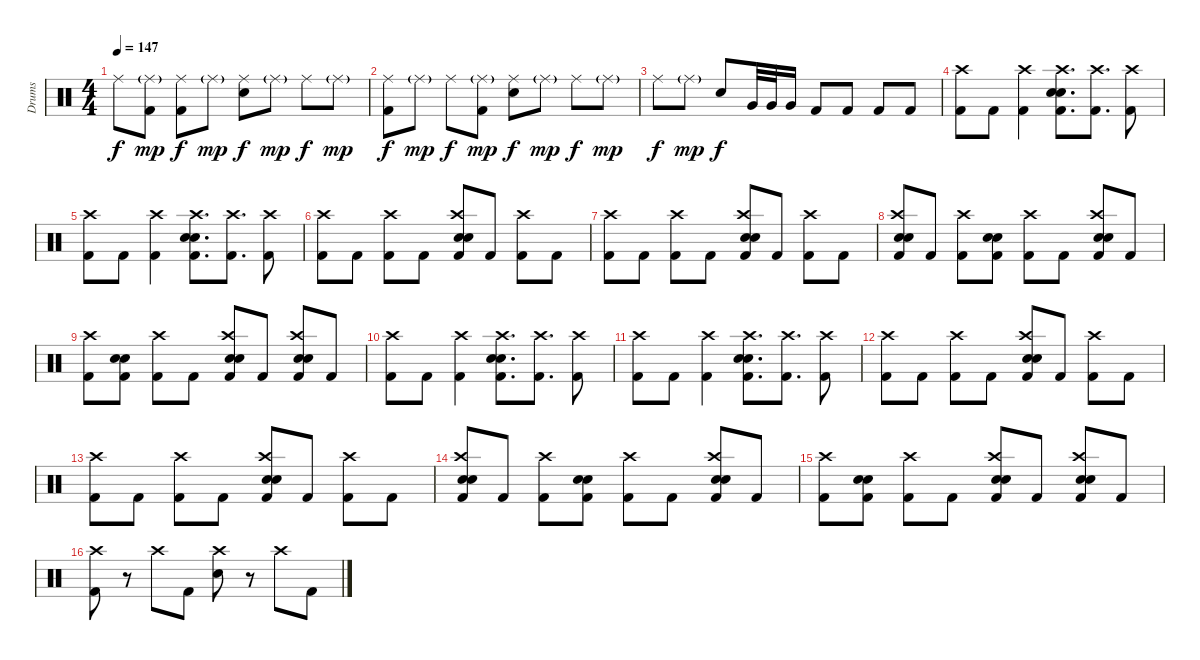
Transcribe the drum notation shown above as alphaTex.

\track ("Drums" "Drums") {instrument percussion}
\staff {score}
\articulation defaults
\ts (4 4)
\tempo 147
\clef neutral
\ks c "Ride (middle)".8{dy f}
("Ride (middle)"{g} "Kick (hit) 2").8{dy mp} ("Ride (middle)" "Kick (hit) 2").8{dy f} "Ride (middle)"{g}.8{dy mp} ("Ride (middle)" "Snare (hit) 2").8{dy f} "Ride (middle)"{g}.8{dy mp} "Ride (middle)".8{dy f} "Ride (middle)"{g}.8{dy mp} |
("Ride (middle)" "Kick (hit) 2").8{dy f} "Ride (middle)"{g}.8{dy mp} "Ride (middle)".8{dy f} ("Ride (middle)"{g} "Kick (hit) 2").8{dy mp} ("Ride (middle)" "Snare (hit) 2").8{dy f} "Ride (middle)"{g}.8{dy mp} "Ride (middle)".8{dy f} "Ride (middle)"{g}.8{dy mp} |
"Ride (middle)".8{dy f} "Ride (middle)"{g}.8{dy mp} "Snare (hit) 2".8{dy f} "Very Low Tom (hit)".32 "Very Low Tom (hit)".32 "Very Low Tom (hit)".16 "Kick (hit) 2".8 "Kick (hit) 2".8 "Kick (hit) 2".8 "Kick (hit) 2".8 |
("Crash high (hit)" "Kick (hit) 2").8 "Kick (hit) 2".8 ("Crash high (hit)" "Kick (hit) 2").4 ("Crash high (hit)" "Electric Snare (hit)" "Snare (hit) 2" "Kick (hit) 2").8{d} ("Crash high (hit)" "Kick (hit) 2").8{d} ("Crash high (hit)" "Kick (hit) 2").8 |
("Crash high (hit)" "Kick (hit) 2").8 "Kick (hit) 2".8 ("Crash high (hit)" "Kick (hit) 2").4 ("Crash high (hit)" "Snare (hit) 2" "Electric Snare (hit)" "Kick (hit) 2").8{d} ("Crash high (hit)" "Kick (hit) 2").8{d} ("Crash high (hit)" "Kick (hit) 2").8 |
("Crash high (hit)" "Kick (hit) 2").8 "Kick (hit) 2".8 ("Crash high (hit)" "Kick (hit) 2").8 "Kick (hit) 2".8 ("Crash high (hit)" "Snare (hit) 2" "Electric Snare (hit)" "Kick (hit) 2").8 "Kick (hit) 2".8 ("Crash high (hit)" "Kick (hit) 2").8 "Kick (hit) 2".8 |
("Crash high (hit)" "Kick (hit) 2").8 "Kick (hit) 2".8 ("Crash high (hit)" "Kick (hit) 2").8 "Kick (hit) 2".8 ("Crash high (hit)" "Electric Snare (hit)" "Snare (hit) 2" "Kick (hit) 2").8 "Kick (hit) 2".8 ("Crash high (hit)" "Kick (hit) 2").8 "Kick (hit) 2".8 |
("Crash high (hit)" "Snare (hit) 2" "Electric Snare (hit)" "Kick (hit) 2").8 "Kick (hit) 2".8 ("Crash high (hit)" "Kick (hit) 2").8 ("Snare (hit) 2" "Electric Snare (hit)" "Kick (hit) 2").8 ("Crash high (hit)" "Kick (hit) 2").8 "Kick (hit) 2".8 ("Crash high (hit)" "Snare (hit) 2" "Electric Snare (hit)" "Kick (hit) 2").8 "Kick (hit) 2".8 |
("Crash high (hit)" "Kick (hit) 2").8 ("Snare (hit) 2" "Electric Snare (hit)" "Kick (hit) 2").8 ("Crash high (hit)" "Kick (hit) 2").8 "Kick (hit) 2".8 ("Crash high (hit)" "Snare (hit) 2" "Electric Snare (hit)" "Kick (hit) 2").8 "Kick (hit) 2".8 ("Crash high (hit)" "Snare (hit) 2" "Electric Snare (hit)" "Kick (hit) 2").8 "Kick (hit) 2".8 |
("Crash high (hit)" "Kick (hit) 2").8 "Kick (hit) 2".8 ("Crash high (hit)" "Kick (hit) 2").4 ("Crash high (hit)" "Electric Snare (hit)" "Snare (hit) 2" "Kick (hit) 2").8{d} ("Crash high (hit)" "Kick (hit) 2").8{d} ("Crash high (hit)" "Kick (hit) 2").8 |
("Crash high (hit)" "Kick (hit) 2").8 "Kick (hit) 2".8 ("Crash high (hit)" "Kick (hit) 2").4 ("Crash high (hit)" "Snare (hit) 2" "Electric Snare (hit)" "Kick (hit) 2").8{d} ("Crash high (hit)" "Kick (hit) 2").8{d} ("Crash high (hit)" "Kick (hit) 2").8 |
("Crash high (hit)" "Kick (hit) 2").8 "Kick (hit) 2".8 ("Crash high (hit)" "Kick (hit) 2").8 "Kick (hit) 2".8 ("Crash high (hit)" "Snare (hit) 2" "Electric Snare (hit)" "Kick (hit) 2").8 "Kick (hit) 2".8 ("Crash high (hit)" "Kick (hit) 2").8 "Kick (hit) 2".8 |
("Crash high (hit)" "Kick (hit) 2").8 "Kick (hit) 2".8 ("Crash high (hit)" "Kick (hit) 2").8 "Kick (hit) 2".8 ("Crash high (hit)" "Electric Snare (hit)" "Snare (hit) 2" "Kick (hit) 2").8 "Kick (hit) 2".8 ("Crash high (hit)" "Kick (hit) 2").8 "Kick (hit) 2".8 |
("Crash high (hit)" "Snare (hit) 2" "Electric Snare (hit)" "Kick (hit) 2").8 "Kick (hit) 2".8 ("Crash high (hit)" "Kick (hit) 2").8 ("Snare (hit) 2" "Electric Snare (hit)" "Kick (hit) 2").8 ("Crash high (hit)" "Kick (hit) 2").8 "Kick (hit) 2".8 ("Crash high (hit)" "Snare (hit) 2" "Electric Snare (hit)" "Kick (hit) 2").8 "Kick (hit) 2".8 |
("Crash high (hit)" "Kick (hit) 2").8 ("Snare (hit) 2" "Electric Snare (hit)" "Kick (hit) 2").8 ("Crash high (hit)" "Kick (hit) 2").8 "Kick (hit) 2".8 ("Crash high (hit)" "Snare (hit) 2" "Electric Snare (hit)" "Kick (hit) 2").8 "Kick (hit) 2".8 ("Crash high (hit)" "Snare (hit) 2" "Electric Snare (hit)" "Kick (hit) 2").8 "Kick (hit) 2".8 |
("Crash high (hit)" "Kick (hit) 2").8 r.8 "Crash high (hit)".8 "Kick (hit) 2".8 ("Crash high (hit)" "Electric Snare (hit)").8 r.8 "Crash high (hit)".8 "Kick (hit) 2".8
